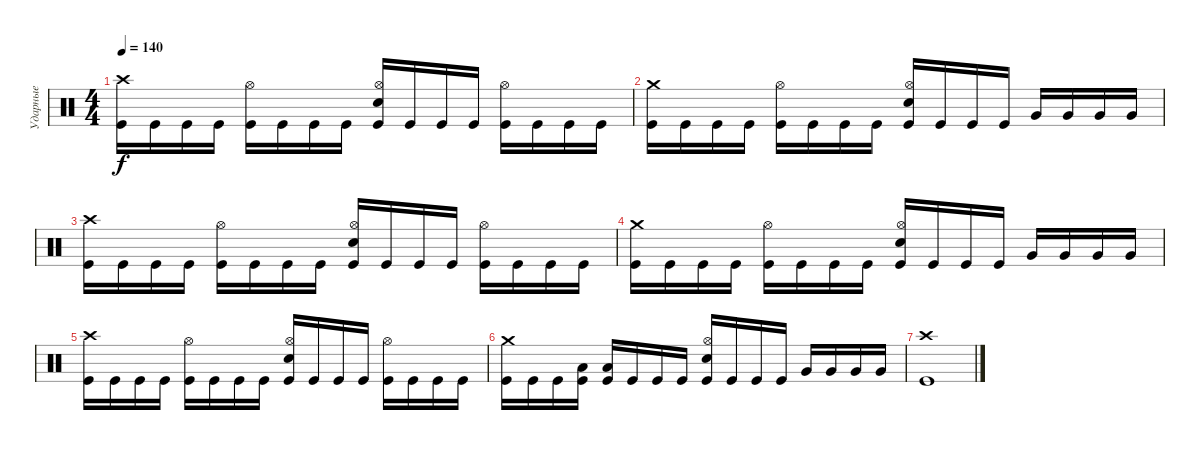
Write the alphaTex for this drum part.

\track ("Ударные" "Ударные") {instrument percussion}
\staff {score}
\articulation defaults
\ts (4 4)
\tempo 140
\clef neutral
\ks c
("Crash high (hit)" "Kick (hit)").16{dy f} "Kick (hit)".16 "Kick (hit)".16 "Kick (hit)".16 ("Hi-Hat (open)" "Kick (hit)").16 "Kick (hit)".16 "Kick (hit)".16 "Kick (hit)".16 ("Hi-Hat (open)" "Electric Snare (hit)" "Kick (hit)").16 "Kick (hit)".16 "Kick (hit)".16 "Kick (hit)".16 ("Hi-Hat (open)" "Kick (hit)").16 "Kick (hit)".16 "Kick (hit)".16 "Kick (hit)".16 |
("Crash medium (hit)" "Kick (hit)").16 "Kick (hit)".16 "Kick (hit)".16 "Kick (hit)".16 ("Hi-Hat (open)" "Kick (hit)").16 "Kick (hit)".16 "Kick (hit)".16 "Kick (hit)".16 ("Hi-Hat (open)" "Electric Snare (hit)" "Kick (hit)").16 "Kick (hit)".16 "Kick (hit)".16 "Kick (hit)".16 "Very Low Tom (hit)".16 "Very Low Tom (hit)".16 "Very Low Tom (hit)".16 "Very Low Tom (hit)".16 |
("Crash high (hit)" "Kick (hit)").16 "Kick (hit)".16 "Kick (hit)".16 "Kick (hit)".16 ("Hi-Hat (open)" "Kick (hit)").16 "Kick (hit)".16 "Kick (hit)".16 "Kick (hit)".16 ("Hi-Hat (open)" "Electric Snare (hit)" "Kick (hit)").16 "Kick (hit)".16 "Kick (hit)".16 "Kick (hit)".16 ("Hi-Hat (open)" "Kick (hit)").16 "Kick (hit)".16 "Kick (hit)".16 "Kick (hit)".16 |
("Crash medium (hit)" "Kick (hit)").16 "Kick (hit)".16 "Kick (hit)".16 "Kick (hit)".16 ("Hi-Hat (open)" "Kick (hit)").16 "Kick (hit)".16 "Kick (hit)".16 "Kick (hit)".16 ("Hi-Hat (open)" "Electric Snare (hit)" "Kick (hit)").16 "Kick (hit)".16 "Kick (hit)".16 "Kick (hit)".16 "Very Low Tom (hit)".16 "Very Low Tom (hit)".16 "Very Low Tom (hit)".16 "Very Low Tom (hit)".16 |
("Crash high (hit)" "Kick (hit)").16 "Kick (hit)".16 "Kick (hit)".16 "Kick (hit)".16 ("Hi-Hat (open)" "Kick (hit)").16 "Kick (hit)".16 "Kick (hit)".16 "Kick (hit)".16 ("Hi-Hat (open)" "Electric Snare (hit)" "Kick (hit)").16 "Kick (hit)".16 "Kick (hit)".16 "Kick (hit)".16 ("Hi-Hat (open)" "Kick (hit)").16 "Kick (hit)".16 "Kick (hit)".16 "Kick (hit)".16 |
("Crash medium (hit)" "Kick (hit)").16 "Kick (hit)".16 "Kick (hit)".16 ("Low Tom (hit)" "Kick (hit)").16 ("Low Tom (hit)" "Kick (hit)").16 "Kick (hit)".16 "Kick (hit)".16 "Kick (hit)".16 ("Hi-Hat (open)" "Electric Snare (hit)" "Kick (hit)").16 "Kick (hit)".16 "Kick (hit)".16 "Kick (hit)".16 "Very Low Tom (hit)".16 "Very Low Tom (hit)".16 "Very Low Tom (hit)".16 "Very Low Tom (hit)".16 |
("Crash high (hit)" "Kick (hit)").1
